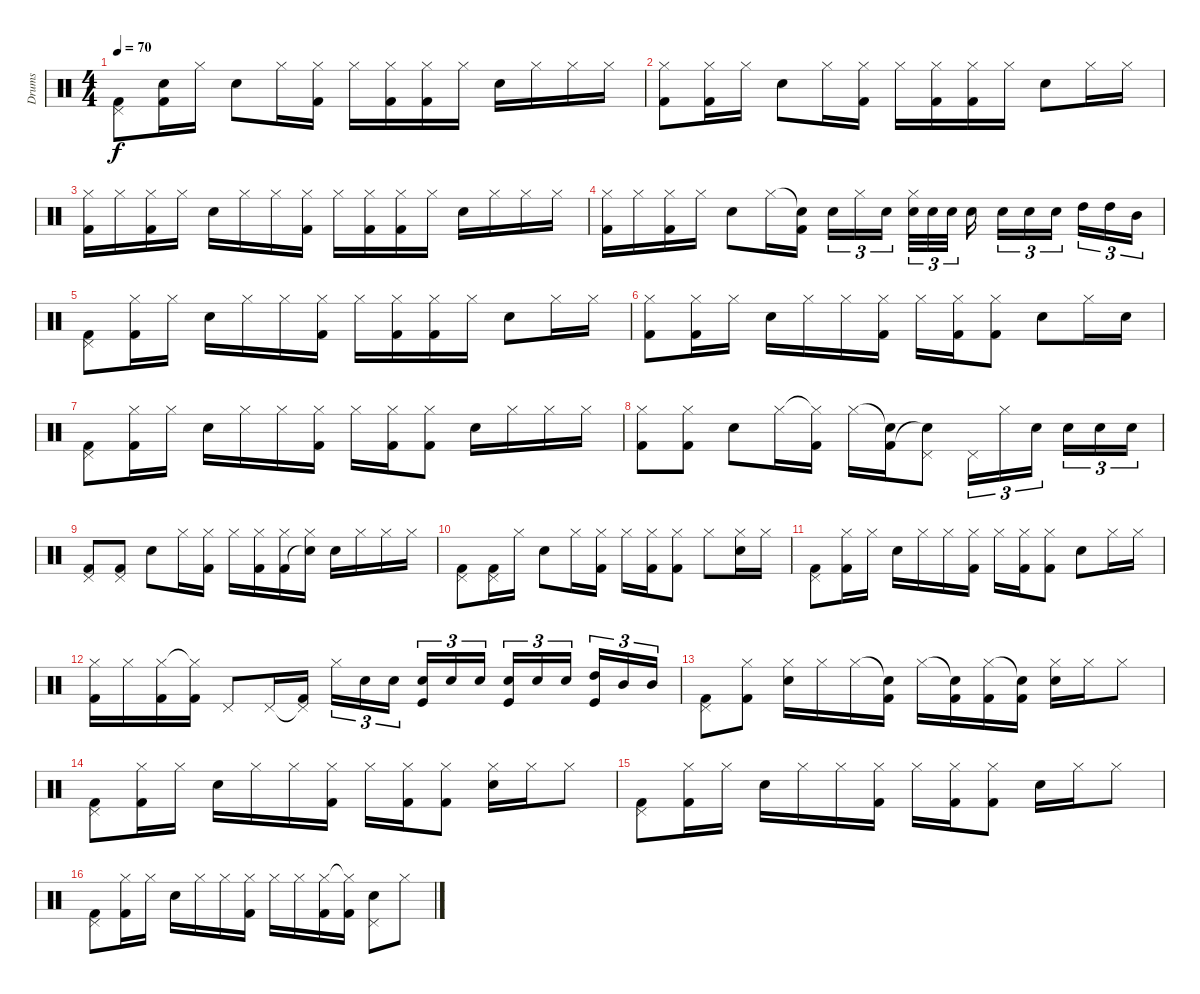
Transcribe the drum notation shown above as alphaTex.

\track ("Drums" "Drums") {instrument percussion}
\staff {score}
\articulation defaults
\ts (4 4)
\tempo 70
\clef neutral
\ks c
("Pedal Hi-Hat (hit)" "Kick (hit) 2").8{dy f} ("Snare (hit)" "Kick (hit) 2").16 "Hi-Hat (closed)".16 "Snare (hit) 2".8 "Hi-Hat (closed)".16 ("Hi-Hat (closed)" "Kick (hit) 2").16 "Hi-Hat (closed)".16 ("Hi-Hat (closed)" "Kick (hit) 2").16 ("Hi-Hat (closed)" "Kick (hit) 2").16 "Hi-Hat (closed)".16 "Snare (hit) 2".16 "Hi-Hat (closed)".16 "Hi-Hat (closed)".16 "Hi-Hat (closed)".16 |
("Hi-Hat (closed)" "Kick (hit) 2").8 ("Hi-Hat (closed)" "Kick (hit) 2").16 "Hi-Hat (closed)".16 "Snare (hit) 2".8 "Hi-Hat (closed)".16 ("Hi-Hat (closed)" "Kick (hit) 2").16 "Hi-Hat (closed)".16 ("Hi-Hat (closed)" "Kick (hit) 2").16 ("Hi-Hat (closed)" "Kick (hit) 2").16 "Hi-Hat (closed)".16 "Snare (hit) 2".8 "Hi-Hat (closed)".16 "Hi-Hat (closed)".16 |
("Hi-Hat (closed)" "Kick (hit) 2").16 "Hi-Hat (closed)".16 ("Hi-Hat (closed)" "Kick (hit) 2").16 "Hi-Hat (closed)".16 "Snare (hit) 2".16 "Hi-Hat (closed)".16 "Hi-Hat (closed)".16 ("Hi-Hat (closed)" "Kick (hit) 2").16 "Hi-Hat (closed)".16 ("Hi-Hat (closed)" "Kick (hit) 2").16 ("Hi-Hat (closed)" "Kick (hit) 2").16 "Hi-Hat (closed)".16 "Snare (hit) 2".16 "Hi-Hat (closed)".16 "Hi-Hat (closed)".16 "Hi-Hat (closed)".16 |
("Hi-Hat (closed)" "Kick (hit) 2").16 "Hi-Hat (closed)".16 ("Hi-Hat (closed)" "Kick (hit) 2").16 "Hi-Hat (closed)".16 "Snare (hit) 2".8 "Hi-Hat (closed)".16 ("Snare (hit)"{t} "Kick (hit) 2").16 "Snare (hit) 2".16{tu (3 2)} "Hi-Hat (closed)".16{tu (3 2)} "Snare (hit) 2".16{tu (3 2)} ("Hi-Hat (closed)" "Electric Snare (hit)").32{tu (3 2)} "Electric Snare (hit)".32{tu (3 2)} "Electric Snare (hit)".32{tu (3 2)} "Snare (hit) 2".16 "Snare (hit) 2".16{tu (3 2)} "Electric Snare (hit)".16{tu (3 2)} "Snare (hit) 2".16{tu (3 2)} "High Tom (hit)".16{tu (3 2)} "High Tom (hit)".16{tu (3 2)} "Mid Tom (hit)".16{tu (3 2)} |
("Pedal Hi-Hat (hit)" "Kick (hit) 2").8 ("Hi-Hat (closed)" "Kick (hit) 2").16 "Hi-Hat (closed)".16 "Snare (hit) 2".16 "Hi-Hat (closed)".16 "Hi-Hat (closed)".16 ("Hi-Hat (closed)" "Kick (hit) 2").16 "Hi-Hat (closed)".16 ("Hi-Hat (closed)" "Kick (hit) 2").16 ("Hi-Hat (closed)" "Kick (hit) 2").16 "Hi-Hat (closed)".16 "Snare (hit) 2".8 "Hi-Hat (closed)".16 "Hi-Hat (closed)".16 |
("Hi-Hat (closed)" "Kick (hit) 2").8 ("Hi-Hat (closed)" "Kick (hit) 2").16 "Hi-Hat (closed)".16 "Snare (hit) 2".16 "Hi-Hat (closed)".16 "Hi-Hat (closed)".16 ("Hi-Hat (closed)" "Kick (hit) 2").16 "Hi-Hat (closed)".16 ("Hi-Hat (closed)" "Kick (hit) 2").16 ("Hi-Hat (closed)" "Kick (hit) 2").8 "Snare (hit) 2".8 "Hi-Hat (closed)".16 "Snare (hit) 2".16 |
("Pedal Hi-Hat (hit)" "Kick (hit) 2").8 ("Hi-Hat (closed)" "Kick (hit) 2").16 "Hi-Hat (closed)".16 "Snare (hit) 2".16 "Hi-Hat (closed)".16 "Hi-Hat (closed)".16 ("Hi-Hat (closed)" "Kick (hit) 2").16 "Hi-Hat (closed)".16 ("Hi-Hat (closed)" "Kick (hit) 2").16 ("Hi-Hat (closed)" "Kick (hit) 2").8 "Snare (hit) 2".16 "Hi-Hat (closed)".16 "Hi-Hat (closed)".16 "Hi-Hat (closed)".16 |
("Hi-Hat (closed)" "Kick (hit) 2").8 ("Hi-Hat (closed)" "Kick (hit) 2").8 "Snare (hit) 2".8 "Hi-Hat (closed)".16 ("Hi-Hat (closed)"{t} "Kick (hit) 2").16 "Hi-Hat (closed)".16 ("Snare (hit)"{t} "Kick (hit) 2").16 ("Pedal Hi-Hat (hit)" "Snare (hit)"{t}).8 "Pedal Hi-Hat (hit)".16{tu (3 2)} "Hi-Hat (closed)".16{tu (3 2)} "Snare (hit) 2".16{tu (3 2)} "Snare (hit) 2".16{tu (3 2)} "Snare (hit) 2".16{tu (3 2)} "Snare (hit) 2".16{tu (3 2)} |
("Pedal Hi-Hat (hit)" "Kick (hit) 2").8 ("Pedal Hi-Hat (hit)" "Kick (hit) 2").8 "Snare (hit) 2".8 "Hi-Hat (closed)".16 ("Hi-Hat (closed)" "Kick (hit) 2").16 "Hi-Hat (closed)".16 ("Hi-Hat (closed)" "Kick (hit) 2").16 ("Hi-Hat (closed)" "Kick (hit) 2").16 ("Hi-Hat (closed)" "Snare (hit)"{t}).16 "Snare (hit) 2".16 "Hi-Hat (closed)".16 "Hi-Hat (closed)".16 "Hi-Hat (closed)".16 |
("Pedal Hi-Hat (hit)" "Kick (hit) 2").8 ("Pedal Hi-Hat (hit)" "Kick (hit) 2").16 "Hi-Hat (closed)".16 "Snare (hit) 2".8 "Hi-Hat (closed)".16 ("Hi-Hat (closed)" "Kick (hit) 2").16 "Hi-Hat (closed)".16 ("Hi-Hat (closed)" "Kick (hit) 2").16 ("Hi-Hat (closed)" "Kick (hit) 2").8 "Hi-Hat (closed)".8 ("Hi-Hat (closed)" "Snare (hit) 2").16 "Hi-Hat (closed)".16 |
("Pedal Hi-Hat (hit)" "Kick (hit) 2").8 ("Hi-Hat (closed)" "Kick (hit) 2").16 "Hi-Hat (closed)".16 "Snare (hit) 2".16 "Hi-Hat (closed)".16 "Hi-Hat (closed)".16 ("Hi-Hat (closed)" "Kick (hit) 2").16 "Hi-Hat (closed)".16 ("Hi-Hat (closed)" "Kick (hit) 2").16 ("Hi-Hat (closed)" "Kick (hit) 2").8 "Snare (hit) 2".8 "Hi-Hat (closed)".16 "Hi-Hat (closed)".16 |
("Hi-Hat (closed)" "Kick (hit) 2").16 "Hi-Hat (closed)".16 ("Hi-Hat (closed)" "Kick (hit) 2").16 ("Hi-Hat (closed)"{t} "Kick (hit) 2").16 "Pedal Hi-Hat (hit)".8 "Pedal Hi-Hat (hit)".16 ("Pedal Hi-Hat (hit)"{t} "Kick (hit) 2").16 "Hi-Hat (closed)".16{tu (3 2)} "Snare (hit) 2".16{tu (3 2)} "Snare (hit) 2".16{tu (3 2)} ("Electric Snare (hit)" "Kick (hit)").16{tu (3 2)} "Electric Snare (hit)".16{tu (3 2)} "Snare (hit) 2".16{tu (3 2)} ("Snare (hit) 2" "Kick (hit)").16{tu (3 2)} "Electric Snare (hit)".16{tu (3 2)} "Snare (hit) 2".16{tu (3 2)} ("High Tom (hit)" "Kick (hit)").16{tu (3 2)} "Mid Tom (hit)".16{tu (3 2)} "Mid Tom (hit)".16{tu (3 2)} |
("Pedal Hi-Hat (hit)" "Kick (hit) 2").8 ("Hi-Hat (closed)" "Kick (hit) 2").8 ("Hi-Hat (closed)" "Snare (hit) 2").16 "Hi-Hat (closed)".16 "Hi-Hat (closed)".16 ("Snare (hit)"{t} "Kick (hit) 2").16 "Hi-Hat (closed)".16 ("Snare (hit)"{t} "Kick (hit) 2").16 ("Hi-Hat (closed)" "Kick (hit) 2").16 ("Snare (hit)"{t} "Kick (hit) 2").16 ("Hi-Hat (closed)" "Snare (hit) 2").16 "Hi-Hat (closed)".16 "Hi-Hat (closed)".8 |
("Pedal Hi-Hat (hit)" "Kick (hit) 2").8 ("Hi-Hat (closed)" "Kick (hit) 2").16 "Hi-Hat (closed)".16 "Snare (hit) 2".16 "Hi-Hat (closed)".16 "Hi-Hat (closed)".16 ("Hi-Hat (closed)" "Kick (hit) 2").16 "Hi-Hat (closed)".16 ("Hi-Hat (closed)" "Kick (hit) 2").16 ("Hi-Hat (closed)" "Kick (hit) 2").8 ("Hi-Hat (closed)" "Snare (hit) 2").16 "Hi-Hat (closed)".16 "Hi-Hat (closed)".8 |
("Pedal Hi-Hat (hit)" "Kick (hit) 2").8 ("Hi-Hat (closed)" "Kick (hit) 2").16 "Hi-Hat (closed)".16 "Snare (hit) 2".16 "Hi-Hat (closed)".16 "Hi-Hat (closed)".16 ("Hi-Hat (closed)" "Kick (hit) 2").16 "Hi-Hat (closed)".16 ("Hi-Hat (closed)" "Kick (hit) 2").16 ("Hi-Hat (closed)" "Kick (hit) 2").8 "Snare (hit) 2".16 "Hi-Hat (closed)".16 "Hi-Hat (closed)".8 |
("Pedal Hi-Hat (hit)" "Kick (hit) 2").8 ("Hi-Hat (closed)" "Kick (hit) 2").16 "Hi-Hat (closed)".16 "Snare (hit) 2".16 "Hi-Hat (closed)".16 "Hi-Hat (closed)".16 ("Hi-Hat (closed)" "Kick (hit) 2").16 "Hi-Hat (closed)".16 "Hi-Hat (closed)".16 ("Hi-Hat (closed)" "Kick (hit) 2").16 ("Hi-Hat (closed)"{t} "Kick (hit) 2").16 ("Pedal Hi-Hat (hit)" "Snare (hit) 2").8 "Hi-Hat (closed)".8
